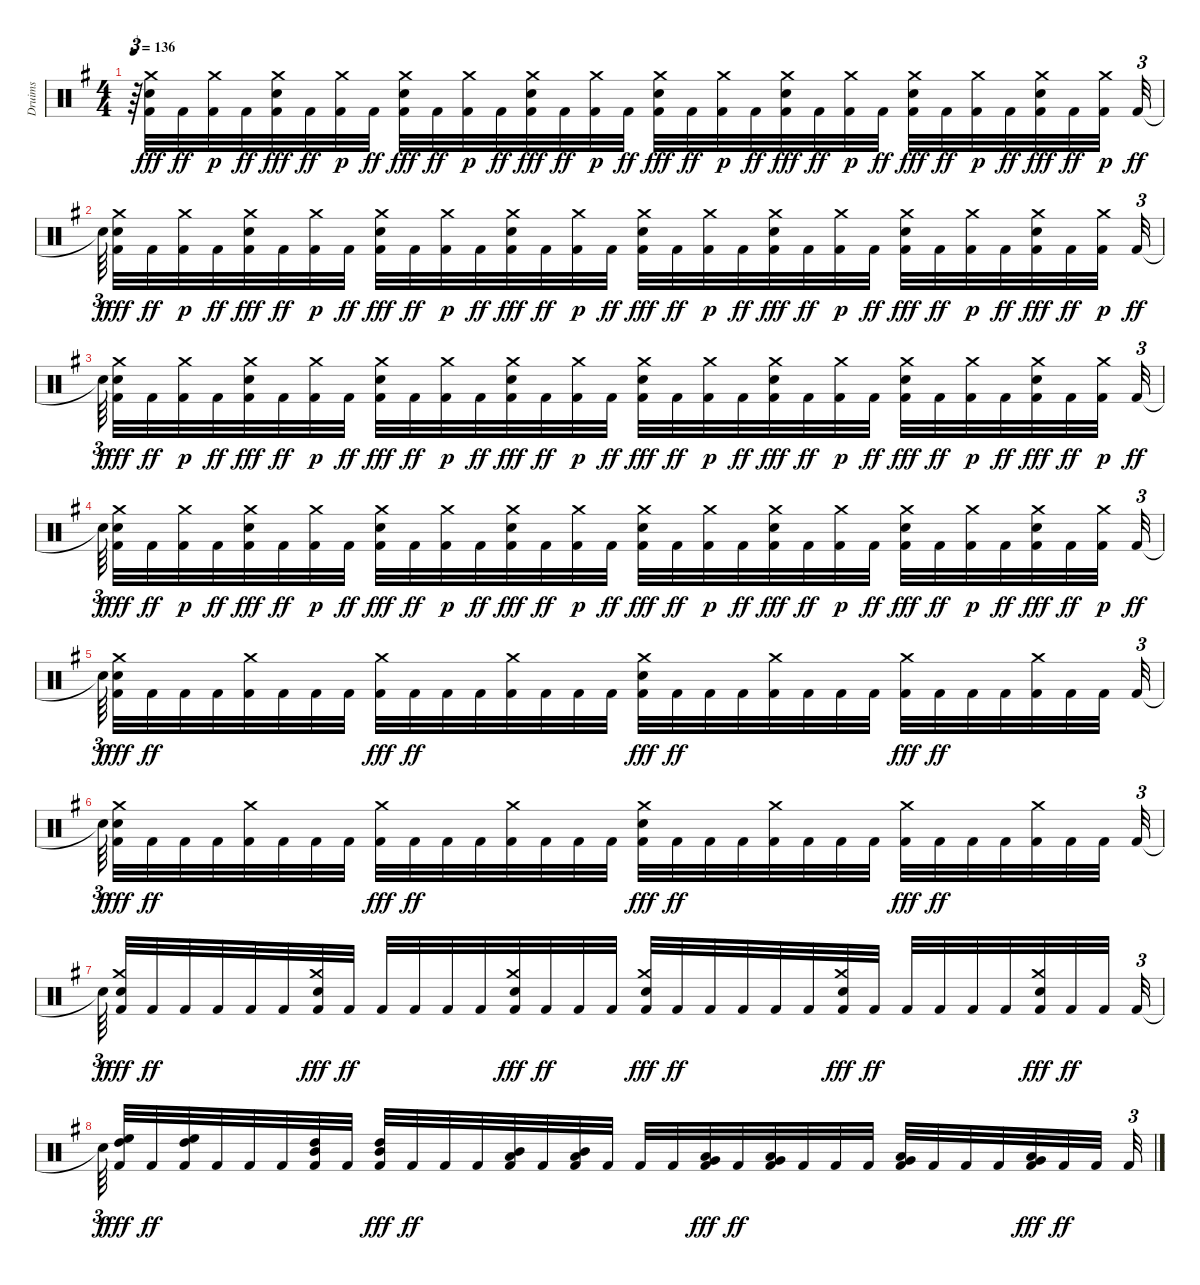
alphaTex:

\track ("Druims" "Druims") {instrument percussion}
\staff {score}
\articulation defaults
\ts (4 4)
\tempo 136
\clef neutral
\ks eminor
r.64{tu (3 2) dy ff} ("Kick (hit) 2" "Crash medium (hit)" "Snare (hit) 2").32{dy fff} "Kick (hit) 2".32{dy ff} ("Kick (hit) 2" "Crash medium (hit)").32{dy p} "Kick (hit) 2".32{dy ff} ("Kick (hit) 2" "Snare (hit) 2" "Crash medium (hit)").32{dy fff} "Kick (hit) 2".32{dy ff} ("Kick (hit) 2" "Crash medium (hit)").32{dy p} "Kick (hit) 2".32{dy ff} ("Kick (hit) 2" "Snare (hit) 2" "Crash medium (hit)").32{dy fff} "Kick (hit) 2".32{dy ff} ("Kick (hit) 2" "Crash medium (hit)").32{dy p} "Kick (hit) 2".32{dy ff} ("Kick (hit) 2" "Snare (hit) 2" "Crash medium (hit)").32{dy fff} "Kick (hit) 2".32{dy ff} ("Kick (hit) 2" "Crash medium (hit)").32{dy p} "Kick (hit) 2".32{dy ff} ("Kick (hit) 2" "Snare (hit) 2" "Crash medium (hit)").32{dy fff} "Kick (hit) 2".32{dy ff} ("Kick (hit) 2" "Crash medium (hit)").32{dy p} "Kick (hit) 2".32{dy ff} ("Kick (hit) 2" "Crash medium (hit)" "Snare (hit) 2").32{dy fff} "Kick (hit) 2".32{dy ff} ("Kick (hit) 2" "Crash medium (hit)").32{dy p} "Kick (hit) 2".32{dy ff} ("Kick (hit) 2" "Snare (hit) 2" "Crash medium (hit)").32{dy fff} "Kick (hit) 2".32{dy ff} ("Kick (hit) 2" "Crash medium (hit)").32{dy p} "Kick (hit) 2".32{dy ff} ("Kick (hit) 2" "Snare (hit) 2" "Crash medium (hit)").32{dy fff} "Kick (hit) 2".32{dy ff} ("Kick (hit) 2" "Crash medium (hit)").32{dy p beam splitsecondary} "Kick (hit) 2".32{tu (3 2) dy ff} |
"Snare (hit)"{t}.64{tu (3 2) dy f beam splitsecondary} ("Kick (hit) 2" "Snare (hit) 2" "Crash medium (hit)").32{dy fff} "Kick (hit) 2".32{dy ff} ("Kick (hit) 2" "Crash medium (hit)").32{dy p} "Kick (hit) 2".32{dy ff} ("Kick (hit) 2" "Snare (hit) 2" "Crash medium (hit)").32{dy fff} "Kick (hit) 2".32{dy ff} ("Kick (hit) 2" "Crash medium (hit)").32{dy p} "Kick (hit) 2".32{dy ff} ("Kick (hit) 2" "Snare (hit) 2" "Crash medium (hit)").32{dy fff} "Kick (hit) 2".32{dy ff} ("Kick (hit) 2" "Crash medium (hit)").32{dy p} "Kick (hit) 2".32{dy ff} ("Kick (hit) 2" "Snare (hit) 2" "Crash medium (hit)").32{dy fff} "Kick (hit) 2".32{dy ff} ("Kick (hit) 2" "Crash medium (hit)").32{dy p} "Kick (hit) 2".32{dy ff} ("Kick (hit) 2" "Snare (hit) 2" "Crash medium (hit)").32{dy fff} "Kick (hit) 2".32{dy ff} ("Kick (hit) 2" "Crash medium (hit)").32{dy p} "Kick (hit) 2".32{dy ff} ("Kick (hit) 2" "Crash medium (hit)" "Snare (hit) 2").32{dy fff} "Kick (hit) 2".32{dy ff} ("Kick (hit) 2" "Crash medium (hit)").32{dy p} "Kick (hit) 2".32{dy ff} ("Kick (hit) 2" "Snare (hit) 2" "Crash medium (hit)").32{dy fff} "Kick (hit) 2".32{dy ff} ("Kick (hit) 2" "Crash medium (hit)").32{dy p} "Kick (hit) 2".32{dy ff} ("Kick (hit) 2" "Snare (hit) 2" "Crash medium (hit)").32{dy fff} "Kick (hit) 2".32{dy ff} ("Kick (hit) 2" "Crash medium (hit)").32{dy p beam splitsecondary} "Kick (hit) 2".32{tu (3 2) dy ff} |
"Snare (hit)"{t}.64{tu (3 2) dy f beam splitsecondary} ("Kick (hit) 2" "Crash medium (hit)" "Snare (hit) 2").32{dy fff} "Kick (hit) 2".32{dy ff} ("Kick (hit) 2" "Crash medium (hit)").32{dy p} "Kick (hit) 2".32{dy ff} ("Kick (hit) 2" "Snare (hit) 2" "Crash medium (hit)").32{dy fff} "Kick (hit) 2".32{dy ff} ("Kick (hit) 2" "Crash medium (hit)").32{dy p} "Kick (hit) 2".32{dy ff} ("Kick (hit) 2" "Snare (hit) 2" "Crash medium (hit)").32{dy fff} "Kick (hit) 2".32{dy ff} ("Kick (hit) 2" "Crash medium (hit)").32{dy p} "Kick (hit) 2".32{dy ff} ("Kick (hit) 2" "Snare (hit) 2" "Crash medium (hit)").32{dy fff} "Kick (hit) 2".32{dy ff} ("Kick (hit) 2" "Crash medium (hit)").32{dy p} "Kick (hit) 2".32{dy ff} ("Kick (hit) 2" "Snare (hit) 2" "Crash medium (hit)").32{dy fff} "Kick (hit) 2".32{dy ff} ("Kick (hit) 2" "Crash medium (hit)").32{dy p} "Kick (hit) 2".32{dy ff} ("Kick (hit) 2" "Crash medium (hit)" "Snare (hit) 2").32{dy fff} "Kick (hit) 2".32{dy ff} ("Kick (hit) 2" "Crash medium (hit)").32{dy p} "Kick (hit) 2".32{dy ff} ("Kick (hit) 2" "Snare (hit) 2" "Crash medium (hit)").32{dy fff} "Kick (hit) 2".32{dy ff} ("Kick (hit) 2" "Crash medium (hit)").32{dy p} "Kick (hit) 2".32{dy ff} ("Kick (hit) 2" "Snare (hit) 2" "Crash medium (hit)").32{dy fff} "Kick (hit) 2".32{dy ff} ("Kick (hit) 2" "Crash medium (hit)").32{dy p beam splitsecondary} "Kick (hit) 2".32{tu (3 2) dy ff} |
"Snare (hit)"{t}.64{tu (3 2) dy f beam splitsecondary} ("Kick (hit) 2" "Snare (hit) 2" "Crash medium (hit)").32{dy fff} "Kick (hit) 2".32{dy ff} ("Kick (hit) 2" "Crash medium (hit)").32{dy p} "Kick (hit) 2".32{dy ff} ("Kick (hit) 2" "Snare (hit) 2" "Crash medium (hit)").32{dy fff} "Kick (hit) 2".32{dy ff} ("Kick (hit) 2" "Crash medium (hit)").32{dy p} "Kick (hit) 2".32{dy ff} ("Kick (hit) 2" "Snare (hit) 2" "Crash medium (hit)").32{dy fff} "Kick (hit) 2".32{dy ff} ("Kick (hit) 2" "Crash medium (hit)").32{dy p} "Kick (hit) 2".32{dy ff} ("Kick (hit) 2" "Snare (hit) 2" "Crash medium (hit)").32{dy fff} "Kick (hit) 2".32{dy ff} ("Kick (hit) 2" "Crash medium (hit)").32{dy p} "Kick (hit) 2".32{dy ff} ("Kick (hit) 2" "Snare (hit) 2" "Crash medium (hit)").32{dy fff} "Kick (hit) 2".32{dy ff} ("Kick (hit) 2" "Crash medium (hit)").32{dy p} "Kick (hit) 2".32{dy ff} ("Kick (hit) 2" "Crash medium (hit)" "Snare (hit) 2").32{dy fff} "Kick (hit) 2".32{dy ff} ("Kick (hit) 2" "Crash medium (hit)").32{dy p} "Kick (hit) 2".32{dy ff} ("Kick (hit) 2" "Snare (hit) 2" "Crash medium (hit)").32{dy fff} "Kick (hit) 2".32{dy ff} ("Kick (hit) 2" "Crash medium (hit)").32{dy p} "Kick (hit) 2".32{dy ff} ("Kick (hit) 2" "Snare (hit) 2" "Crash medium (hit)").32{dy fff} "Kick (hit) 2".32{dy ff} ("Kick (hit) 2" "Crash medium (hit)").32{dy p beam splitsecondary} "Kick (hit) 2".32{tu (3 2) dy ff} |
"Snare (hit)"{t}.64{tu (3 2) dy f beam splitsecondary} ("Kick (hit) 2" "Crash medium (hit)" "Snare (hit) 2").32{dy fff} "Kick (hit) 2".32{dy ff} "Kick (hit) 2".32 "Kick (hit) 2".32 ("Crash medium (hit)" "Kick (hit) 2").32 "Kick (hit) 2".32 "Kick (hit) 2".32 "Kick (hit) 2".32 ("Kick (hit) 2" "Crash medium (hit)").32{dy fff} "Kick (hit) 2".32{dy ff} "Kick (hit) 2".32 "Kick (hit) 2".32 ("Crash medium (hit)" "Kick (hit) 2").32 "Kick (hit) 2".32 "Kick (hit) 2".32 "Kick (hit) 2".32 ("Kick (hit) 2" "Snare (hit) 2" "Crash medium (hit)").32{dy fff} "Kick (hit) 2".32{dy ff} "Kick (hit) 2".32 "Kick (hit) 2".32 ("Crash medium (hit)" "Kick (hit) 2").32 "Kick (hit) 2".32 "Kick (hit) 2".32 "Kick (hit) 2".32 ("Kick (hit) 2" "Crash medium (hit)").32{dy fff} "Kick (hit) 2".32{dy ff} "Kick (hit) 2".32 "Kick (hit) 2".32 ("Crash medium (hit)" "Kick (hit) 2").32 "Kick (hit) 2".32 "Kick (hit) 2".32{beam splitsecondary} "Kick (hit) 2".32{tu (3 2)} |
"Snare (hit)"{t}.64{tu (3 2) dy f beam splitsecondary} ("Kick (hit) 2" "Snare (hit) 2" "Crash medium (hit)").32{dy fff} "Kick (hit) 2".32{dy ff} "Kick (hit) 2".32 "Kick (hit) 2".32 ("Crash medium (hit)" "Kick (hit) 2").32 "Kick (hit) 2".32 "Kick (hit) 2".32 "Kick (hit) 2".32 ("Kick (hit) 2" "Crash medium (hit)").32{dy fff} "Kick (hit) 2".32{dy ff} "Kick (hit) 2".32 "Kick (hit) 2".32 ("Crash medium (hit)" "Kick (hit) 2").32 "Kick (hit) 2".32 "Kick (hit) 2".32 "Kick (hit) 2".32 ("Kick (hit) 2" "Crash medium (hit)" "Snare (hit) 2").32{dy fff} "Kick (hit) 2".32{dy ff} "Kick (hit) 2".32 "Kick (hit) 2".32 ("Crash medium (hit)" "Kick (hit) 2").32 "Kick (hit) 2".32 "Kick (hit) 2".32 "Kick (hit) 2".32 ("Kick (hit) 2" "Crash medium (hit)").32{dy fff} "Kick (hit) 2".32{dy ff} "Kick (hit) 2".32 "Kick (hit) 2".32 ("Crash medium (hit)" "Kick (hit) 2").32 "Kick (hit) 2".32 "Kick (hit) 2".32{beam splitsecondary} "Kick (hit) 2".32{tu (3 2)} |
"Snare (hit)"{t}.64{tu (3 2) dy f beam splitsecondary} ("Kick (hit) 2" "Crash medium (hit)" "Snare (hit) 2").32{dy fff} "Kick (hit) 2".32{dy ff} "Kick (hit) 2".32 "Kick (hit) 2".32 "Kick (hit) 2".32 "Kick (hit) 2".32 ("Crash medium (hit)" "Kick (hit) 2" "Snare (hit) 2").32{dy fff} "Kick (hit) 2".32{dy ff} "Kick (hit) 2".32 "Kick (hit) 2".32 "Kick (hit) 2".32 "Kick (hit) 2".32 ("Crash medium (hit)" "Kick (hit) 2" "Snare (hit) 2").32{dy fff} "Kick (hit) 2".32{dy ff} "Kick (hit) 2".32 "Kick (hit) 2".32 ("Kick (hit) 2" "Crash medium (hit)" "Snare (hit) 2").32{dy fff} "Kick (hit) 2".32{dy ff} "Kick (hit) 2".32 "Kick (hit) 2".32 "Kick (hit) 2".32 "Kick (hit) 2".32 ("Crash medium (hit)" "Kick (hit) 2" "Snare (hit) 2").32{dy fff} "Kick (hit) 2".32{dy ff} "Kick (hit) 2".32 "Kick (hit) 2".32 "Kick (hit) 2".32 "Kick (hit) 2".32 ("Crash medium (hit)" "Kick (hit) 2" "Snare (hit) 2").32{dy fff} "Kick (hit) 2".32{dy ff} "Kick (hit) 2".32{beam splitsecondary} "Kick (hit) 2".32{tu (3 2)} |
"Snare (hit)"{t}.64{tu (3 2) dy f beam splitsecondary} ("Kick (hit) 2" "High Floor Tom (hit)" "High Tom (hit)").32{dy fff} "Kick (hit) 2".32{dy ff} ("Kick (hit) 2" "High Tom (hit)" "High Floor Tom (hit)").32 "Kick (hit) 2".32 "Kick (hit) 2".32 "Kick (hit) 2".32 ("Mid Tom (hit)" "High Tom (hit)" "Kick (hit) 2").32 "Kick (hit) 2".32 ("Kick (hit) 2" "Mid Tom (hit)" "High Tom (hit)").32{dy fff} "Kick (hit) 2".32{dy ff} "Kick (hit) 2".32 "Kick (hit) 2".32 ("Mid Tom (hit)" "Low Tom (hit)" "Kick (hit) 2").32 "Kick (hit) 2".32 ("Mid Tom (hit)" "Low Tom (hit)" "Kick (hit) 2").32 "Kick (hit) 2".32 "Kick (hit) 2".32 "Kick (hit) 2".32 ("Kick (hit) 2" "Very Low Tom (hit)" "Low Tom (hit)").32{dy fff} "Kick (hit) 2".32{dy ff} ("Kick (hit) 2" "Low Tom (hit)" "Very Low Tom (hit)").32 "Kick (hit) 2".32 "Kick (hit) 2".32 "Kick (hit) 2".32 ("Very Low Tom (hit)" "Low Floor Tom (hit)" "Kick (hit) 2").32 "Kick (hit) 2".32 "Kick (hit) 2".32 "Kick (hit) 2".32 ("Low Floor Tom (hit)" "Kick (hit) 2" "Very Low Tom (hit)").32{dy fff} "Kick (hit) 2".32{dy ff} "Kick (hit) 2".32{beam splitsecondary} "Kick (hit) 2".32{tu (3 2)}
